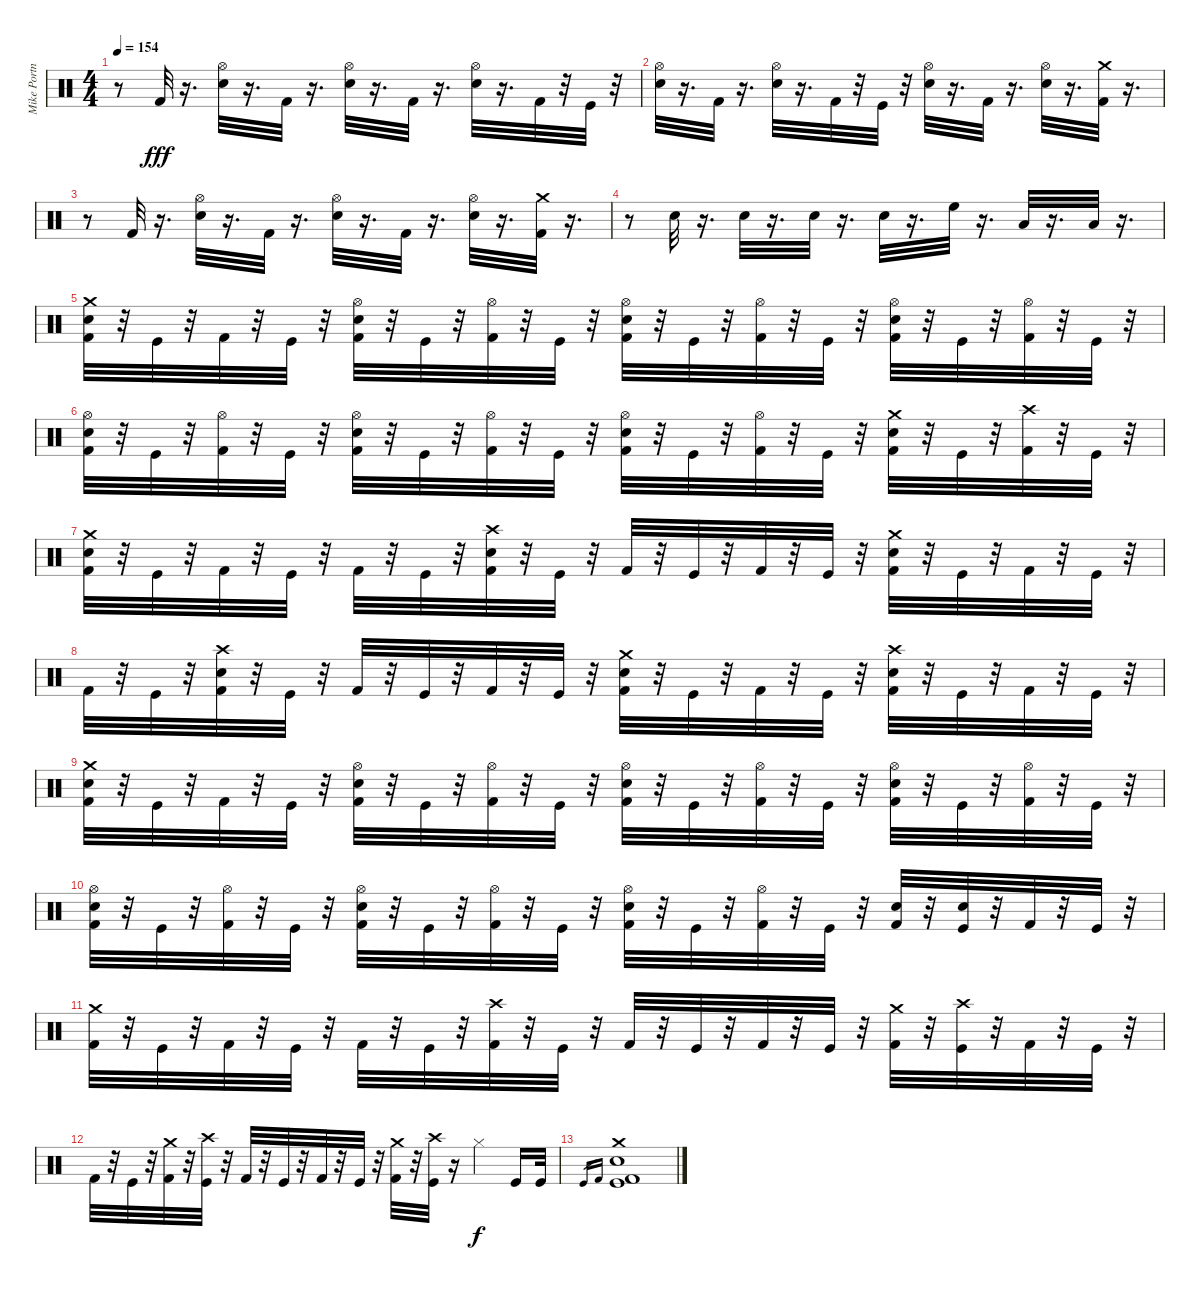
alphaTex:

\track ("Mike Portnoy" "Mike Portn") {instrument percussion}
\staff {score}
\articulation defaults
\ts (4 4)
\tempo 154
\clef neutral
\ks c
r.8{dy fff} "Kick (hit) 2".32 r.16{d} ("Snare (hit) 2" "Hi-Hat (open)").32 r.16{d} "Kick (hit) 2".32 r.16{d} ("Snare (hit) 2" "Hi-Hat (open)").32 r.16{d} "Kick (hit) 2".32 r.16{d} ("Snare (hit) 2" "Hi-Hat (open)").32 r.16{d} "Kick (hit) 2".32 r.32 "Kick (hit)".32 r.32 |
("Snare (hit) 2" "Hi-Hat (open)").32 r.16{d} "Kick (hit) 2".32 r.16{d} ("Snare (hit) 2" "Hi-Hat (open)").32 r.16{d} "Kick (hit) 2".32 r.32 "Kick (hit)".32 r.32 ("Snare (hit) 2" "Hi-Hat (open)").32 r.16{d} "Kick (hit) 2".32 r.16{d} ("Snare (hit) 2" "Hi-Hat (open)").32 r.16{d} ("Kick (hit) 2" "Crash medium (hit)").32 r.16{d} |
r.8 "Kick (hit) 2".32 r.16{d} ("Snare (hit) 2" "Hi-Hat (open)").32 r.16{d} "Kick (hit) 2".32 r.16{d} ("Snare (hit) 2" "Hi-Hat (open)").32 r.16{d} "Kick (hit) 2".32 r.16{d} ("Snare (hit) 2" "Hi-Hat (open)").32 r.16{d} ("Kick (hit) 2" "Crash medium (hit)").32 r.16{d} |
r.8 "Snare (hit) 2".32 r.16{d} "Snare (hit) 2".32 r.16{d} "Snare (hit) 2".32 r.16{d} "Snare (hit) 2".32 r.16{d} "High Floor Tom (hit)".32 r.16{d} "Low Tom (hit)".32 r.16{d} "Low Floor Tom (hit)".32 r.16{d} |
("Kick (hit) 2" "Snare (hit) 2" "Crash medium (hit)").32 r.32 "Kick (hit)".32 r.32 "Kick (hit) 2".32 r.32 "Kick (hit)".32 r.32 ("Kick (hit) 2" "Snare (hit) 2" "Hi-Hat (open)").32 r.32 "Kick (hit)".32 r.32 ("Kick (hit) 2" "Hi-Hat (open)").32 r.32 "Kick (hit)".32 r.32 ("Kick (hit) 2" "Snare (hit) 2" "Hi-Hat (open)").32 r.32 "Kick (hit)".32 r.32 ("Kick (hit) 2" "Hi-Hat (open)").32 r.32 "Kick (hit)".32 r.32 ("Kick (hit) 2" "Snare (hit) 2" "Hi-Hat (open)").32 r.32 "Kick (hit)".32 r.32 ("Kick (hit) 2" "Hi-Hat (open)").32 r.32 "Kick (hit)".32 r.32 |
("Kick (hit) 2" "Snare (hit) 2" "Hi-Hat (open)").32 r.32 "Kick (hit)".32 r.32 ("Kick (hit) 2" "Hi-Hat (open)").32 r.32 "Kick (hit)".32 r.32 ("Kick (hit) 2" "Snare (hit) 2" "Hi-Hat (open)").32 r.32 "Kick (hit)".32 r.32 ("Kick (hit) 2" "Hi-Hat (open)").32 r.32 "Kick (hit)".32 r.32 ("Kick (hit) 2" "Snare (hit) 2" "Hi-Hat (open)").32 r.32 "Kick (hit)".32 r.32 ("Kick (hit) 2" "Hi-Hat (open)").32 r.32 "Kick (hit)".32 r.32 ("Kick (hit) 2" "Snare (hit) 2" "Crash medium (hit)").32 r.32 "Kick (hit)".32 r.32 ("Kick (hit) 2" "Crash high (hit)").32 r.32 "Kick (hit)".32 r.32 |
("Crash medium (hit)" "Snare (hit) 2" "Kick (hit) 2").32 r.32 "Kick (hit)".32 r.32 "Kick (hit) 2".32 r.32 "Kick (hit)".32 r.32 "Kick (hit) 2".32 r.32 "Kick (hit)".32 r.32 ("Crash high (hit)" "Snare (hit) 2" "Kick (hit) 2").32 r.32 "Kick (hit)".32 r.32 "Kick (hit) 2".32 r.32 "Kick (hit)".32 r.32 "Kick (hit) 2".32 r.32 "Kick (hit)".32 r.32 ("Crash medium (hit)" "Snare (hit) 2" "Kick (hit) 2").32 r.32 "Kick (hit)".32 r.32 "Kick (hit) 2".32 r.32 "Kick (hit)".32 r.32 |
"Kick (hit) 2".32 r.32 "Kick (hit)".32 r.32 ("Crash high (hit)" "Snare (hit) 2" "Kick (hit) 2").32 r.32 "Kick (hit)".32 r.32 "Kick (hit) 2".32 r.32 "Kick (hit)".32 r.32 "Kick (hit) 2".32 r.32 "Kick (hit)".32 r.32 ("Crash medium (hit)" "Snare (hit) 2" "Kick (hit) 2").32 r.32 "Kick (hit)".32 r.32 "Kick (hit) 2".32 r.32 "Kick (hit)".32 r.32 ("Crash high (hit)" "Snare (hit) 2" "Kick (hit) 2").32 r.32 "Kick (hit)".32 r.32 "Kick (hit) 2".32 r.32 "Kick (hit)".32 r.32 |
("Snare (hit) 2" "Crash medium (hit)" "Kick (hit) 2").32 r.32 "Kick (hit)".32 r.32 "Kick (hit) 2".32 r.32 "Kick (hit)".32 r.32 ("Snare (hit) 2" "Hi-Hat (open)" "Kick (hit) 2").32 r.32 "Kick (hit)".32 r.32 ("Hi-Hat (open)" "Kick (hit) 2").32 r.32 "Kick (hit)".32 r.32 ("Snare (hit) 2" "Hi-Hat (open)" "Kick (hit) 2").32 r.32 "Kick (hit)".32 r.32 ("Hi-Hat (open)" "Kick (hit) 2").32 r.32 "Kick (hit)".32 r.32 ("Snare (hit) 2" "Hi-Hat (open)" "Kick (hit) 2").32 r.32 "Kick (hit)".32 r.32 ("Hi-Hat (open)" "Kick (hit) 2").32 r.32 "Kick (hit)".32 r.32 |
("Snare (hit) 2" "Hi-Hat (open)" "Kick (hit) 2").32 r.32 "Kick (hit)".32 r.32 ("Hi-Hat (open)" "Kick (hit) 2").32 r.32 "Kick (hit)".32 r.32 ("Snare (hit) 2" "Hi-Hat (open)" "Kick (hit) 2").32 r.32 "Kick (hit)".32 r.32 ("Hi-Hat (open)" "Kick (hit) 2").32 r.32 "Kick (hit)".32 r.32 ("Snare (hit) 2" "Hi-Hat (open)" "Kick (hit) 2").32 r.32 "Kick (hit)".32 r.32 ("Hi-Hat (open)" "Kick (hit) 2").32 r.32 "Kick (hit)".32 r.32 ("Snare (hit) 2" "Kick (hit) 2").32 r.32 ("Snare (hit) 2" "Kick (hit)").32 r.32 "Kick (hit) 2".32 r.32 "Kick (hit)".32 r.32 |
("Crash medium (hit)" "Kick (hit) 2").32 r.32 "Kick (hit)".32 r.32 "Kick (hit) 2".32 r.32 "Kick (hit)".32 r.32 "Kick (hit) 2".32 r.32 "Kick (hit)".32 r.32 ("Crash high (hit)" "Kick (hit) 2").32 r.32 "Kick (hit)".32 r.32 "Kick (hit) 2".32 r.32 "Kick (hit)".32 r.32 "Kick (hit) 2".32 r.32 "Kick (hit)".32 r.32 ("Crash medium (hit)" "Kick (hit) 2").32 r.32 ("Crash high (hit)" "Kick (hit)").32 r.32 "Kick (hit) 2".32 r.32 "Kick (hit)".32 r.32 |
"Kick (hit) 2".32 r.32 "Kick (hit)".32 r.32 ("Crash medium (hit)" "Kick (hit) 2").32 r.32 ("Crash high (hit)" "Kick (hit)").32 r.32 "Kick (hit) 2".32 r.32 "Kick (hit)".32 r.32 "Kick (hit) 2".32 r.32 "Kick (hit)".32 r.32 ("Crash medium (hit)" "Kick (hit) 2").32 r.32 ("Crash high (hit)" "Kick (hit)").32 r.16 "Hi-Hat (closed)".4{dy f} "Kick (hit)".16 "Kick (hit)".32 |
"Kick (hit)".16{gr} "Kick (hit) 2".16{gr} ("Crash medium (hit)" "Electric Snare (hit)" "Kick (hit)" "Kick (hit) 2").1
